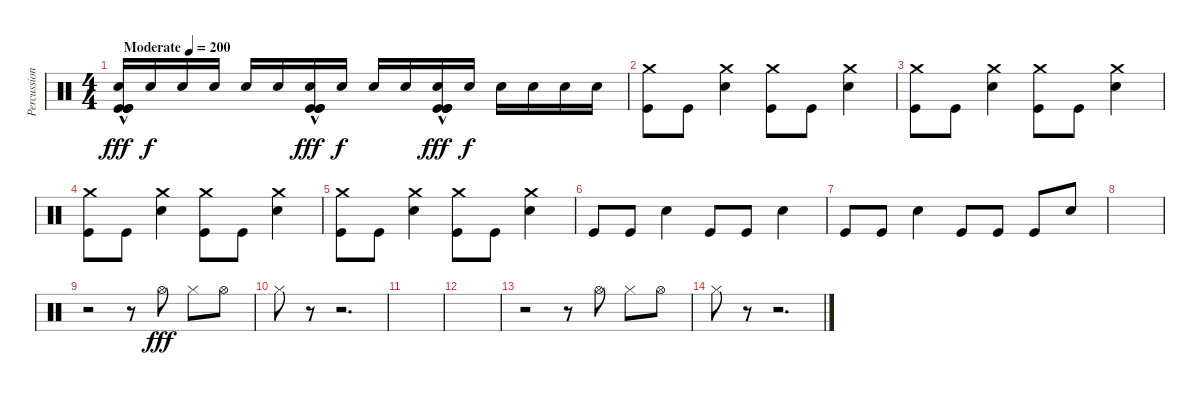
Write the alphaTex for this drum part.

\track ("Percussion" "Percussion") {instrument percussion}
\staff {score}
\articulation defaults
\ts (4 4)
\tempo (200 "Moderate")
\clef neutral
\ks c
("Snare (hit) 2"{hac} "Kick (hit)" "Kick (hit)" "Kick (hit)").16{dy fff} "Snare (hit) 2".16{dy f} "Snare (hit) 2".16 "Snare (hit) 2".16 "Snare (hit) 2".16 "Snare (hit) 2".16 ("Snare (hit) 2"{hac} "Kick (hit)" "Kick (hit)" "Kick (hit)").16{dy fff} "Snare (hit) 2".16{dy f} "Snare (hit) 2".16 "Snare (hit) 2".16 ("Snare (hit) 2"{hac} "Kick (hit)" "Kick (hit)" "Kick (hit)").16{dy fff} "Snare (hit) 2".16{dy f} "Snare (hit) 2".16 "Snare (hit) 2".16 "Snare (hit) 2".16 "Snare (hit) 2".16 |
("Crash medium (hit)" "Kick (hit)").8 "Kick (hit)".8 ("Crash medium (hit)" "Snare (hit) 2").4 ("Crash medium (hit)" "Kick (hit)").8 "Kick (hit)".8 ("Crash medium (hit)" "Snare (hit) 2").4 |
("Crash medium (hit)" "Kick (hit)").8 "Kick (hit)".8 ("Crash medium (hit)" "Snare (hit) 2").4 ("Crash medium (hit)" "Kick (hit)").8 "Kick (hit)".8 ("Crash medium (hit)" "Snare (hit) 2").4 |
("Crash medium (hit)" "Kick (hit)").8 "Kick (hit)".8 ("Crash medium (hit)" "Snare (hit) 2").4 ("Crash medium (hit)" "Kick (hit)").8 "Kick (hit)".8 ("Crash medium (hit)" "Snare (hit) 2").4 |
("Crash medium (hit)" "Kick (hit)").8 "Kick (hit)".8 ("Crash medium (hit)" "Snare (hit) 2").4 ("Crash medium (hit)" "Kick (hit)").8 "Kick (hit)".8 ("Crash medium (hit)" "Snare (hit) 2").4 |
"Kick (hit)".8 "Kick (hit)".8 "Snare (hit) 2".4 "Kick (hit)".8 "Kick (hit)".8 "Snare (hit) 2".4 |
"Kick (hit)".8 "Kick (hit)".8 "Snare (hit) 2".4 "Kick (hit)".8 "Kick (hit)".8 "Kick (hit)".8 "Snare (hit) 2".8 |
|
r.2 r.8 "Hi-Hat (open)".8{dy fff} "Hi-Hat (closed)".8 "Hi-Hat (open)".8 |
"Hi-Hat (closed)".8 r.8 r.2{d} |
|
|
r.2 r.8 "Hi-Hat (open)".8 "Hi-Hat (closed)".8 "Hi-Hat (open)".8 |
"Hi-Hat (closed)".8 r.8 r.2{d}
